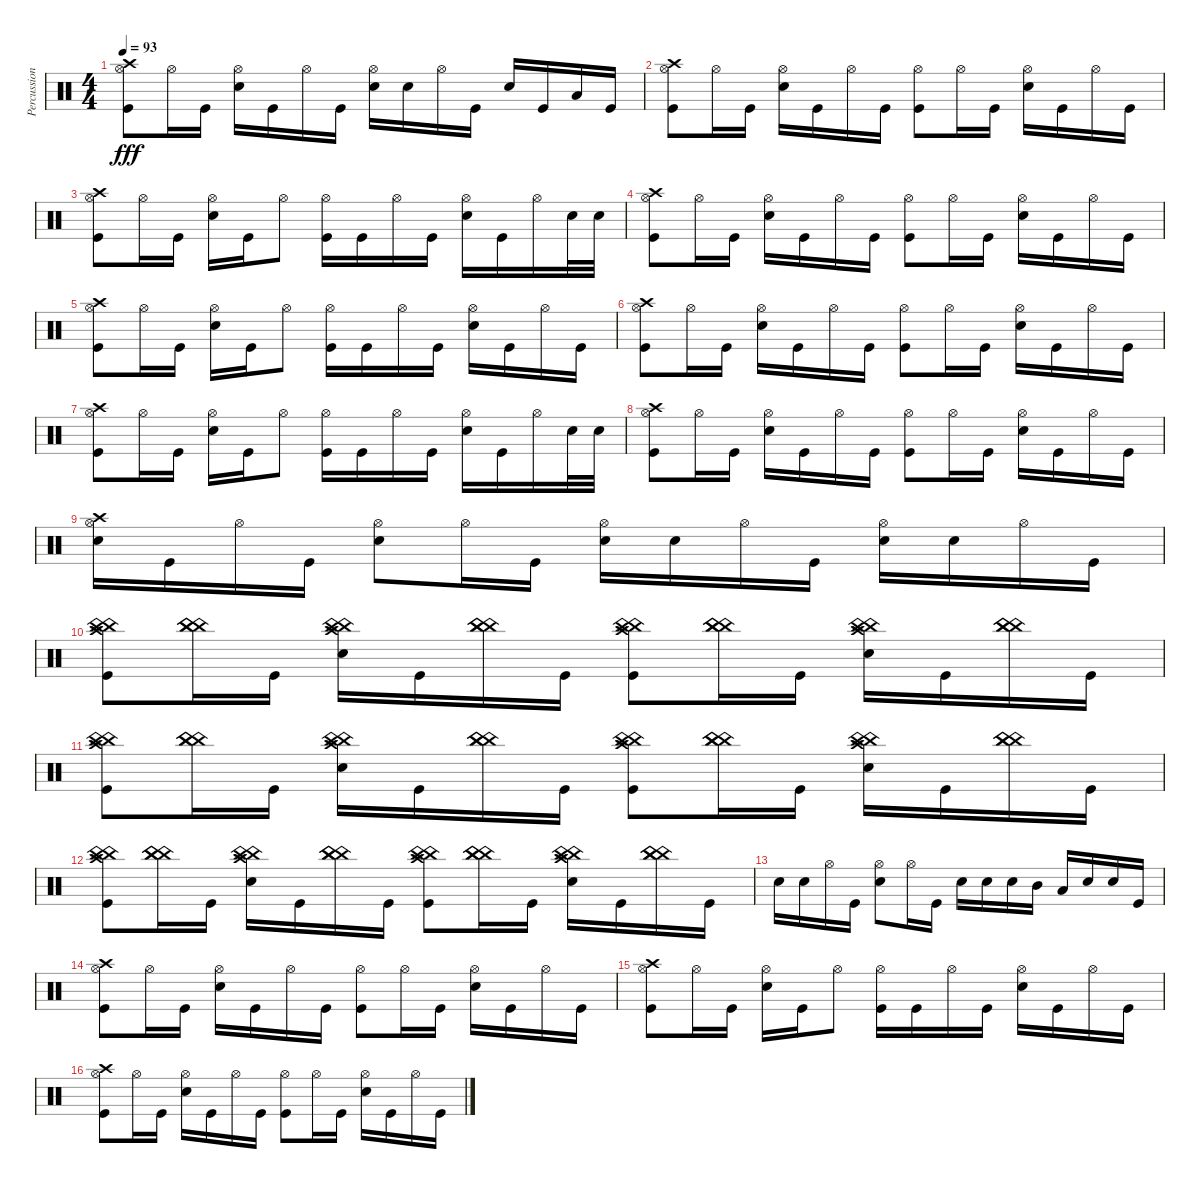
\track ("Percussion" "Percussion") {instrument percussion}
\staff {score}
\articulation defaults
\ts (4 4)
\tempo 93
\clef neutral
\ks c
("Hi-Hat (open)" "Crash high (hit)" "Kick (hit)").8{dy fff} "Hi-Hat (open)".16 "Kick (hit)".16 ("Hi-Hat (open)" "Snare (hit) 2").16 "Kick (hit)".16 "Hi-Hat (open)".16 "Kick (hit)".16 ("Hi-Hat (open)" "Snare (hit) 2").16 "Snare (hit) 2".16 "Hi-Hat (open)".16 "Kick (hit)".16 "Snare (hit) 2".16 "Kick (hit)".16 "Low Floor Tom (hit)".16 "Kick (hit)".16 |
("Hi-Hat (open)" "Crash high (hit)" "Kick (hit)").8 "Hi-Hat (open)".16 "Kick (hit)".16 ("Hi-Hat (open)" "Snare (hit) 2").16 "Kick (hit)".16 "Hi-Hat (open)".16 "Kick (hit)".16 ("Hi-Hat (open)" "Kick (hit)").8 "Hi-Hat (open)".16 "Kick (hit)".16 ("Hi-Hat (open)" "Snare (hit) 2").16 "Kick (hit)".16 "Hi-Hat (open)".16 "Kick (hit)".16 |
("Hi-Hat (open)" "Crash high (hit)" "Kick (hit)").8 "Hi-Hat (open)".16 "Kick (hit)".16 ("Hi-Hat (open)" "Snare (hit) 2").16 "Kick (hit)".16 "Hi-Hat (open)".8 ("Hi-Hat (open)" "Kick (hit)").16 "Kick (hit)".16 "Hi-Hat (open)".16 "Kick (hit)".16 ("Hi-Hat (open)" "Snare (hit) 2").16 "Kick (hit)".16 "Hi-Hat (open)".16 "Snare (hit) 2".32 "Snare (hit) 2".32 |
("Hi-Hat (open)" "Crash high (hit)" "Kick (hit)").8 "Hi-Hat (open)".16 "Kick (hit)".16 ("Hi-Hat (open)" "Snare (hit) 2").16 "Kick (hit)".16 "Hi-Hat (open)".16 "Kick (hit)".16 ("Hi-Hat (open)" "Kick (hit)").8 "Hi-Hat (open)".16 "Kick (hit)".16 ("Hi-Hat (open)" "Snare (hit) 2").16 "Kick (hit)".16 "Hi-Hat (open)".16 "Kick (hit)".16 |
("Hi-Hat (open)" "Crash high (hit)" "Kick (hit)").8 "Hi-Hat (open)".16 "Kick (hit)".16 ("Hi-Hat (open)" "Snare (hit) 2").16 "Kick (hit)".16 "Hi-Hat (open)".8 ("Hi-Hat (open)" "Kick (hit)").16 "Kick (hit)".16 "Hi-Hat (open)".16 "Kick (hit)".16 ("Hi-Hat (open)" "Snare (hit) 2").16 "Kick (hit)".16 "Hi-Hat (open)".16 "Kick (hit)".16 |
("Hi-Hat (open)" "Crash high (hit)" "Kick (hit)").8 "Hi-Hat (open)".16 "Kick (hit)".16 ("Hi-Hat (open)" "Snare (hit) 2").16 "Kick (hit)".16 "Hi-Hat (open)".16 "Kick (hit)".16 ("Hi-Hat (open)" "Kick (hit)").8 "Hi-Hat (open)".16 "Kick (hit)".16 ("Hi-Hat (open)" "Snare (hit) 2").16 "Kick (hit)".16 "Hi-Hat (open)".16 "Kick (hit)".16 |
("Hi-Hat (open)" "Crash high (hit)" "Kick (hit)").8 "Hi-Hat (open)".16 "Kick (hit)".16 ("Hi-Hat (open)" "Snare (hit) 2").16 "Kick (hit)".16 "Hi-Hat (open)".8 ("Hi-Hat (open)" "Kick (hit)").16 "Kick (hit)".16 "Hi-Hat (open)".16 "Kick (hit)".16 ("Hi-Hat (open)" "Snare (hit) 2").16 "Kick (hit)".16 "Hi-Hat (open)".16 "Snare (hit) 2".32 "Snare (hit) 2".32 |
("Hi-Hat (open)" "Crash high (hit)" "Kick (hit)").8 "Hi-Hat (open)".16 "Kick (hit)".16 ("Hi-Hat (open)" "Snare (hit) 2").16 "Kick (hit)".16 "Hi-Hat (open)".16 "Kick (hit)".16 ("Hi-Hat (open)" "Kick (hit)").8 "Hi-Hat (open)".16 "Kick (hit)".16 ("Hi-Hat (open)" "Snare (hit) 2").16 "Kick (hit)".16 "Hi-Hat (open)".16 "Kick (hit)".16 |
("Hi-Hat (open)" "Crash high (hit)" "Snare (hit) 2").16 "Kick (hit)".16 "Hi-Hat (open)".16 "Kick (hit)".16 ("Hi-Hat (open)" "Snare (hit) 2").8 "Hi-Hat (open)".16 "Kick (hit)".16 ("Hi-Hat (open)" "Snare (hit) 2").16 "Snare (hit) 2".16 "Hi-Hat (open)".16 "Kick (hit)".16 ("Hi-Hat (open)" "Snare (hit) 2").16 "Snare (hit) 2".16 "Hi-Hat (open)".16 "Kick (hit)".16 |
("China (hit)" "Crash high (hit)" "China (hit)" "Kick (hit)").8 ("China (hit)" "China (hit)" "China (hit)").16 "Kick (hit)".16 ("China (hit)" "Crash high (hit)" "China (hit)" "Snare (hit) 2").16 "Kick (hit)".16 ("China (hit)" "China (hit)" "China (hit)").16 "Kick (hit)".16 ("China (hit)" "Crash high (hit)" "China (hit)" "Kick (hit)").8 ("China (hit)" "China (hit)" "China (hit)").16 "Kick (hit)".16 ("China (hit)" "Crash high (hit)" "China (hit)" "Snare (hit) 2").16 "Kick (hit)".16 ("China (hit)" "China (hit)" "China (hit)").16 "Kick (hit)".16 |
("China (hit)" "Crash high (hit)" "China (hit)" "Kick (hit)").8 ("China (hit)" "China (hit)" "China (hit)").16 "Kick (hit)".16 ("China (hit)" "Crash high (hit)" "China (hit)" "Snare (hit) 2").16 "Kick (hit)".16 ("China (hit)" "China (hit)" "China (hit)").16 "Kick (hit)".16 ("China (hit)" "Crash high (hit)" "China (hit)" "Kick (hit)").8 ("China (hit)" "China (hit)" "China (hit)").16 "Kick (hit)".16 ("China (hit)" "Crash high (hit)" "China (hit)" "Snare (hit) 2").16 "Kick (hit)".16 ("China (hit)" "China (hit)" "China (hit)").16 "Kick (hit)".16 |
("China (hit)" "Crash high (hit)" "China (hit)" "Kick (hit)").8 ("China (hit)" "China (hit)" "China (hit)").16 "Kick (hit)".16 ("China (hit)" "Crash high (hit)" "China (hit)" "Snare (hit) 2").16 "Kick (hit)".16 ("China (hit)" "China (hit)" "China (hit)").16 "Kick (hit)".16 ("China (hit)" "Crash high (hit)" "China (hit)" "Kick (hit)").8 ("China (hit)" "China (hit)" "China (hit)").16 "Kick (hit)".16 ("China (hit)" "Crash high (hit)" "China (hit)" "Snare (hit) 2").16 "Kick (hit)".16 ("China (hit)" "China (hit)" "China (hit)").16 "Kick (hit)".16 |
"Snare (hit) 2".16 "Snare (hit) 2".16 "Hi-Hat (open)".16 "Kick (hit)".16 ("Hi-Hat (open)" "Snare (hit) 2").8 "Hi-Hat (open)".16 "Kick (hit)".16 "Snare (hit) 2".16 "Snare (hit) 2".16 "Snare (hit) 2".16 "Mid Tom (hit)".16 "Low Tom (hit)".16 "Snare (hit) 2".16 "Snare (hit) 2".16 "Kick (hit)".16 |
("Hi-Hat (open)" "Crash high (hit)" "Kick (hit)").8 "Hi-Hat (open)".16 "Kick (hit)".16 ("Hi-Hat (open)" "Snare (hit) 2").16 "Kick (hit)".16 "Hi-Hat (open)".16 "Kick (hit)".16 ("Hi-Hat (open)" "Kick (hit)").8 "Hi-Hat (open)".16 "Kick (hit)".16 ("Hi-Hat (open)" "Snare (hit) 2").16 "Kick (hit)".16 "Hi-Hat (open)".16 "Kick (hit)".16 |
("Hi-Hat (open)" "Crash high (hit)" "Kick (hit)").8 "Hi-Hat (open)".16 "Kick (hit)".16 ("Hi-Hat (open)" "Snare (hit) 2").16 "Kick (hit)".16 "Hi-Hat (open)".8 ("Hi-Hat (open)" "Kick (hit)").16 "Kick (hit)".16 "Hi-Hat (open)".16 "Kick (hit)".16 ("Hi-Hat (open)" "Snare (hit) 2").16 "Kick (hit)".16 "Hi-Hat (open)".16 "Kick (hit)".16 |
("Hi-Hat (open)" "Crash high (hit)" "Kick (hit)").8 "Hi-Hat (open)".16 "Kick (hit)".16 ("Hi-Hat (open)" "Snare (hit) 2").16 "Kick (hit)".16 "Hi-Hat (open)".16 "Kick (hit)".16 ("Hi-Hat (open)" "Kick (hit)").8 "Hi-Hat (open)".16 "Kick (hit)".16 ("Hi-Hat (open)" "Snare (hit) 2").16 "Kick (hit)".16 "Hi-Hat (open)".16 "Kick (hit)".16
